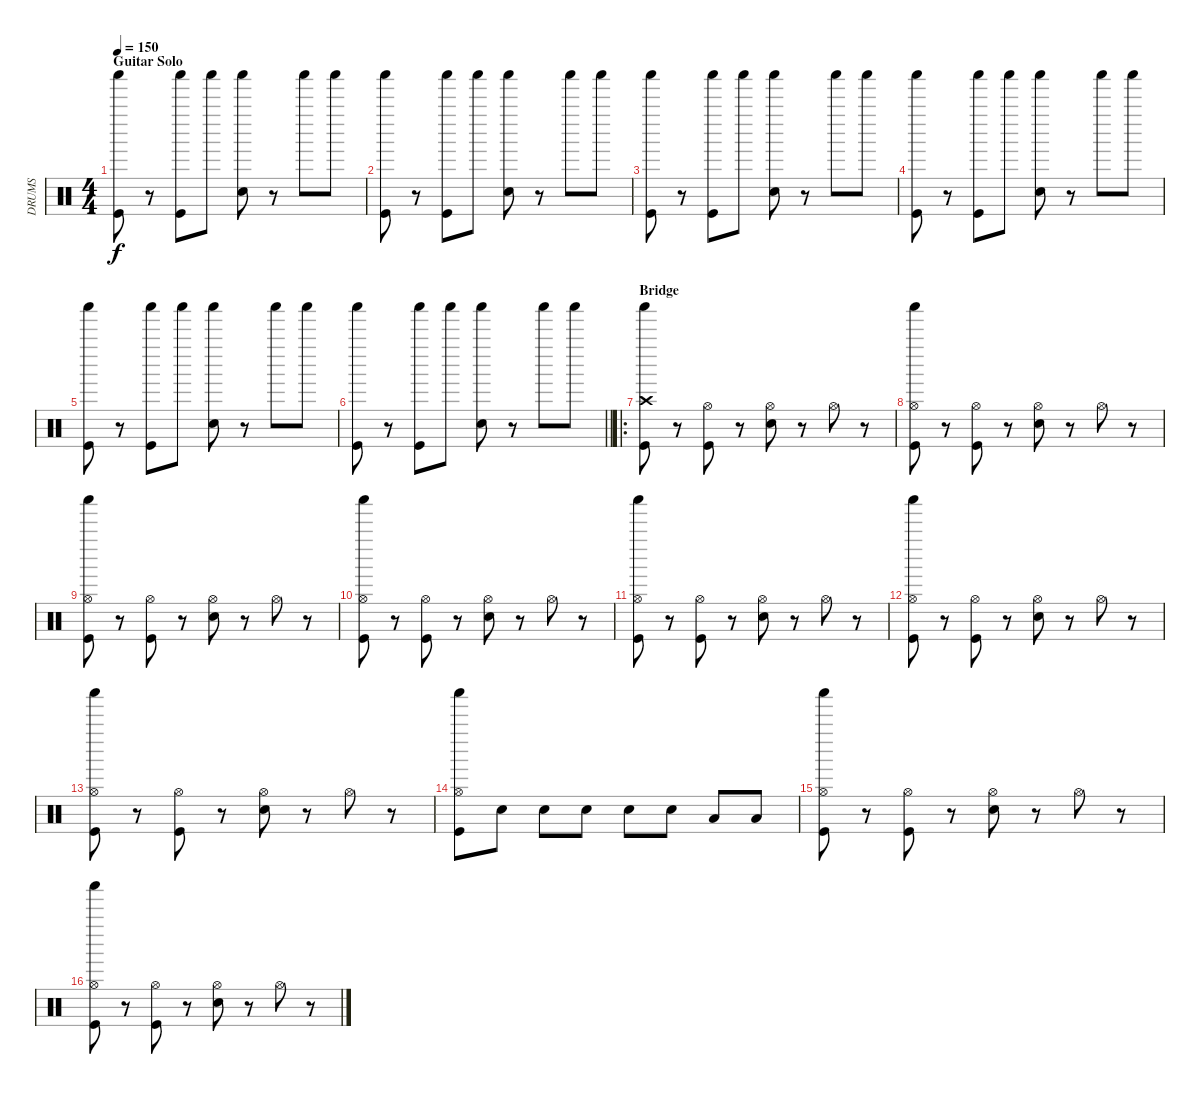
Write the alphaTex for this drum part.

\track ("DRUMS" "DRUMS") {instrument percussion}
\staff {score}
\articulation defaults
\ts (4 4)
\section ("" "Guitar Solo")
\tempo 150
\clef neutral
\ks c
("Shaker (hit)" "Kick (hit)").8{dy f} r.8 ("Shaker (hit)" "Kick (hit)").8 "Shaker (hit)".8 ("Shaker (hit)" "Snare (hit) 2").8 r.8 "Shaker (hit)".8 "Shaker (hit)".8 |
("Shaker (hit)" "Kick (hit)").8 r.8 ("Shaker (hit)" "Kick (hit)").8 "Shaker (hit)".8 ("Shaker (hit)" "Snare (hit) 2").8 r.8 "Shaker (hit)".8 "Shaker (hit)".8 |
("Shaker (hit)" "Kick (hit)").8 r.8 ("Shaker (hit)" "Kick (hit)").8 "Shaker (hit)".8 ("Shaker (hit)" "Snare (hit) 2").8 r.8 "Shaker (hit)".8 "Shaker (hit)".8 |
("Shaker (hit)" "Kick (hit)").8 r.8 ("Shaker (hit)" "Kick (hit)").8 "Shaker (hit)".8 ("Shaker (hit)" "Snare (hit) 2").8 r.8 "Shaker (hit)".8 "Shaker (hit)".8 |
("Shaker (hit)" "Kick (hit)").8 r.8 ("Shaker (hit)" "Kick (hit)").8 "Shaker (hit)".8 ("Shaker (hit)" "Snare (hit) 2").8 r.8 "Shaker (hit)".8 "Shaker (hit)".8 |
\barLineRight lightlight
("Shaker (hit)" "Kick (hit)").8 r.8 ("Shaker (hit)" "Kick (hit)").8 "Shaker (hit)".8 ("Shaker (hit)" "Snare (hit) 2").8 r.8 "Shaker (hit)".8 "Shaker (hit)".8 |
\ro
\section ("" "Bridge")
("Shaker (hit)" "Crash high (hit)" "Kick (hit)").8 r.8 ("Hi-Hat (open)" "Kick (hit)").8 r.8 ("Hi-Hat (open)" "Snare (hit) 2").8 r.8 "Hi-Hat (open)".8 r.8 |
("Shaker (hit)" "Hi-Hat (open)" "Kick (hit)").8 r.8 ("Hi-Hat (open)" "Kick (hit)").8 r.8 ("Hi-Hat (open)" "Snare (hit) 2").8 r.8 "Hi-Hat (open)".8 r.8 |
("Shaker (hit)" "Hi-Hat (open)" "Kick (hit)").8 r.8 ("Hi-Hat (open)" "Kick (hit)").8 r.8 ("Hi-Hat (open)" "Snare (hit) 2").8 r.8 "Hi-Hat (open)".8 r.8 |
("Shaker (hit)" "Hi-Hat (open)" "Kick (hit)").8 r.8 ("Hi-Hat (open)" "Kick (hit)").8 r.8 ("Hi-Hat (open)" "Snare (hit) 2").8 r.8 "Hi-Hat (open)".8 r.8 |
("Shaker (hit)" "Hi-Hat (open)" "Kick (hit)").8 r.8 ("Hi-Hat (open)" "Kick (hit)").8 r.8 ("Hi-Hat (open)" "Snare (hit) 2").8 r.8 "Hi-Hat (open)".8 r.8 |
("Shaker (hit)" "Hi-Hat (open)" "Kick (hit)").8 r.8 ("Hi-Hat (open)" "Kick (hit)").8 r.8 ("Hi-Hat (open)" "Snare (hit) 2").8 r.8 "Hi-Hat (open)".8 r.8 |
("Shaker (hit)" "Hi-Hat (open)" "Kick (hit)").8 r.8 ("Hi-Hat (open)" "Kick (hit)").8 r.8 ("Hi-Hat (open)" "Snare (hit) 2").8 r.8 "Hi-Hat (open)".8 r.8 |
("Shaker (hit)" "Hi-Hat (open)" "Kick (hit)").8 "Snare (hit) 2".8 "Snare (hit) 2".8 "Snare (hit) 2".8 "Snare (hit) 2".8 "Snare (hit) 2".8 "Low Tom (hit)".8 "Low Floor Tom (hit)".8 |
("Shaker (hit)" "Hi-Hat (open)" "Kick (hit)").8 r.8 ("Hi-Hat (open)" "Kick (hit)").8 r.8 ("Hi-Hat (open)" "Snare (hit) 2").8 r.8 "Hi-Hat (open)".8 r.8 |
("Shaker (hit)" "Hi-Hat (open)" "Kick (hit)").8 r.8 ("Hi-Hat (open)" "Kick (hit)").8 r.8 ("Hi-Hat (open)" "Snare (hit) 2").8 r.8 "Hi-Hat (open)".8 r.8
